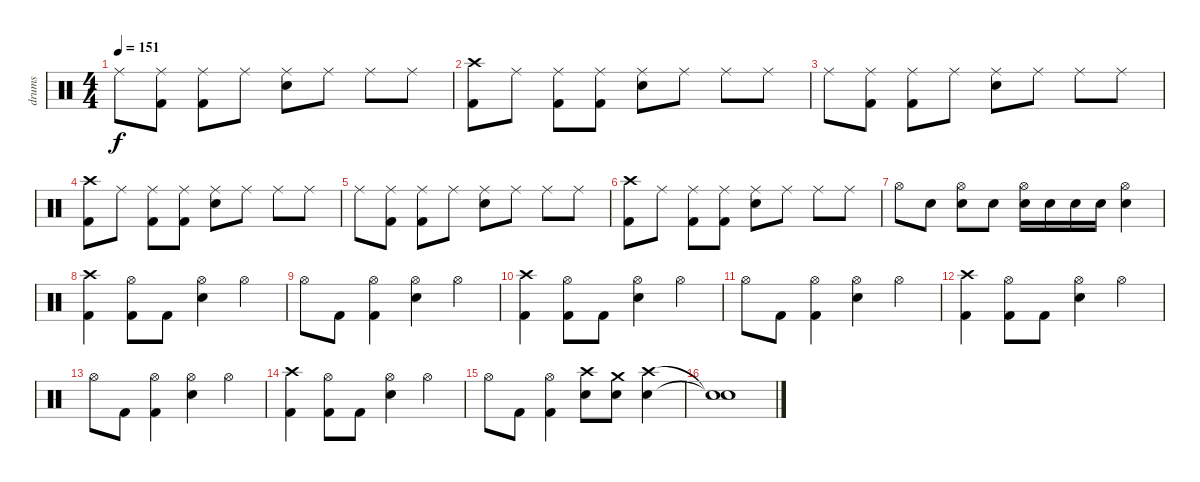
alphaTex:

\track ("drums" "drums") {instrument percussion}
\staff {score}
\articulation defaults
\ts (4 4)
\tempo 151
\clef neutral
\ks c "Ride (middle)".8{dy f}
("Kick (hit) 2" "Ride (middle)").8 ("Kick (hit) 2" "Ride (middle)").8 "Ride (middle)".8 ("Electric Snare (hit)" "Ride (middle)").8 "Ride (middle)".8 "Ride (middle)".8 "Ride (middle)".8 |
("Crash high (hit)" "Kick (hit) 2").8 "Ride (middle)".8 ("Kick (hit) 2" "Ride (middle)").8 ("Kick (hit) 2" "Ride (middle)").8 ("Electric Snare (hit)" "Ride (middle)").8 "Ride (middle)".8 "Ride (middle)".8 "Ride (middle)".8 |
"Ride (middle)".8 ("Kick (hit) 2" "Ride (middle)").8 ("Kick (hit) 2" "Ride (middle)").8 "Ride (middle)".8 ("Electric Snare (hit)" "Ride (middle)").8 "Ride (middle)".8 "Ride (middle)".8 "Ride (middle)".8 |
("Crash high (hit)" "Kick (hit) 2").8 "Ride (middle)".8 ("Kick (hit) 2" "Ride (middle)").8 ("Kick (hit) 2" "Ride (middle)").8 ("Electric Snare (hit)" "Ride (middle)").8 "Ride (middle)".8 "Ride (middle)".8 "Ride (middle)".8 |
"Ride (middle)".8 ("Kick (hit) 2" "Ride (middle)").8 ("Kick (hit) 2" "Ride (middle)").8 "Ride (middle)".8 ("Electric Snare (hit)" "Ride (middle)").8 "Ride (middle)".8 "Ride (middle)".8 "Ride (middle)".8 |
("Crash high (hit)" "Kick (hit) 2").8 "Ride (middle)".8 ("Kick (hit) 2" "Ride (middle)").8 ("Kick (hit) 2" "Ride (middle)").8 ("Electric Snare (hit)" "Ride (middle)").8 "Ride (middle)".8 "Ride (middle)".8 "Ride (middle)".8 |
"Hi-Hat (open)".8 "Electric Snare (hit)".8 ("Hi-Hat (open)" "Electric Snare (hit)").8 "Electric Snare (hit)".8 ("Hi-Hat (open)" "Electric Snare (hit)").16 "Electric Snare (hit)".16 "Electric Snare (hit)".16 "Electric Snare (hit)".16 ("Hi-Hat (open)" "Electric Snare (hit)").4 |
("Crash high (hit)" "Kick (hit) 2").4 ("Hi-Hat (open)" "Kick (hit) 2").8 "Kick (hit) 2".8 ("Hi-Hat (open)" "Electric Snare (hit)").4 "Hi-Hat (open)".4 |
"Hi-Hat (open)".8 "Kick (hit) 2".8 ("Hi-Hat (open)" "Kick (hit) 2").4 ("Hi-Hat (open)" "Electric Snare (hit)").4 "Hi-Hat (open)".4 |
("Crash high (hit)" "Kick (hit) 2").4 ("Hi-Hat (open)" "Kick (hit) 2").8 "Kick (hit) 2".8 ("Hi-Hat (open)" "Electric Snare (hit)").4 "Hi-Hat (open)".4 |
"Hi-Hat (open)".8 "Kick (hit) 2".8 ("Hi-Hat (open)" "Kick (hit) 2").4 ("Hi-Hat (open)" "Electric Snare (hit)").4 "Hi-Hat (open)".4 |
("Crash high (hit)" "Kick (hit) 2").4 ("Hi-Hat (open)" "Kick (hit) 2").8 "Kick (hit) 2".8 ("Hi-Hat (open)" "Electric Snare (hit)").4 "Hi-Hat (open)".4 |
"Hi-Hat (open)".8 "Kick (hit) 2".8 ("Hi-Hat (open)" "Kick (hit) 2").4 ("Hi-Hat (open)" "Electric Snare (hit)").4 "Hi-Hat (open)".4 |
("Crash high (hit)" "Kick (hit) 2").4 ("Hi-Hat (open)" "Kick (hit) 2").8 "Kick (hit) 2".8 ("Hi-Hat (open)" "Electric Snare (hit)").4 "Hi-Hat (open)".4 |
"Hi-Hat (open)".8 "Kick (hit) 2".8 ("Hi-Hat (open)" "Kick (hit) 2").4 ("Crash high (hit)" "Electric Snare (hit)").8 ("Crash medium (hit)" "Electric Snare (hit)").8 ("Crash high (hit)" "Electric Snare (hit)").4 |
("Snare (hit)"{t} "Snare (hit)"{t}).1
